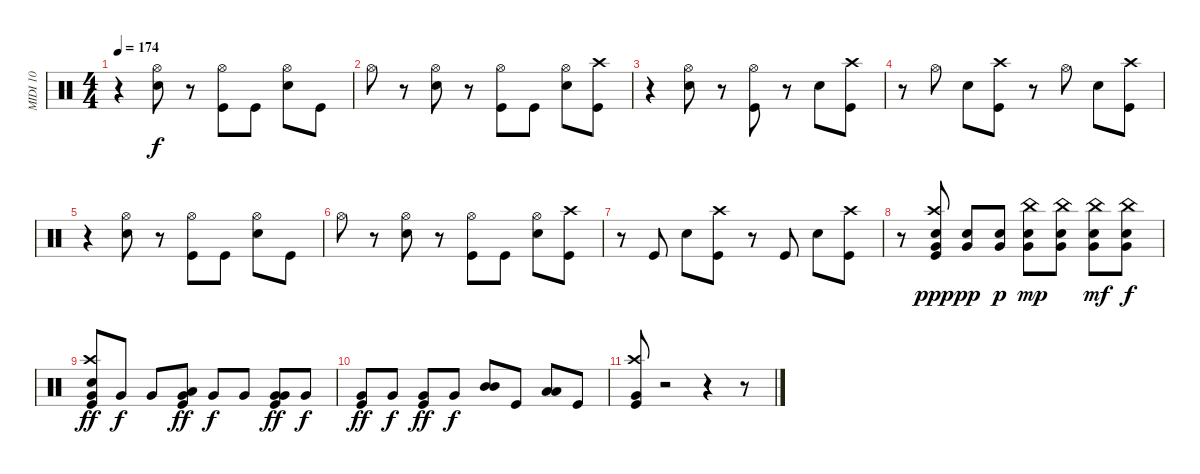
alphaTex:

\track ("MIDI 10" "MIDI 10") {instrument percussion}
\staff {score}
\articulation defaults
\ts (4 4)
\tempo 174
\clef neutral
\ks c
r.4{dy f} ("Hi-Hat (open)" "Snare (hit) 2").8 r.8 ("Hi-Hat (open)" "Kick (hit)").8 "Kick (hit)".8 ("Hi-Hat (open)" "Snare (hit) 2").8 "Kick (hit)".8 |
"Hi-Hat (open)".8 r.8 ("Hi-Hat (open)" "Snare (hit) 2").8 r.8 ("Hi-Hat (open)" "Kick (hit)").8 "Kick (hit)".8 ("Hi-Hat (open)" "Snare (hit) 2").8 ("Kick (hit)" "Crash high (hit)").8 |
r.4 ("Hi-Hat (open)" "Snare (hit) 2").8 r.8 ("Hi-Hat (open)" "Kick (hit)").8 r.8 "Snare (hit) 2".8 ("Crash high (hit)" "Kick (hit)").8 |
r.8 "Hi-Hat (open)".8 "Snare (hit) 2".8 ("Crash high (hit)" "Kick (hit)").8 r.8 "Hi-Hat (open)".8 "Snare (hit) 2".8 ("Kick (hit)" "Crash high (hit)").8 |
r.4 ("Hi-Hat (open)" "Snare (hit) 2").8 r.8 ("Hi-Hat (open)" "Kick (hit)").8 "Kick (hit)".8 ("Hi-Hat (open)" "Snare (hit) 2").8 "Kick (hit)".8 |
"Hi-Hat (open)".8 r.8 ("Hi-Hat (open)" "Snare (hit) 2").8 r.8 ("Hi-Hat (open)" "Kick (hit)").8 "Kick (hit)".8 ("Hi-Hat (open)" "Snare (hit) 2").8 ("Kick (hit)" "Crash high (hit)").8 |
r.8 "Kick (hit)".8 "Snare (hit) 2".8 ("Kick (hit)" "Crash high (hit)").8 r.8 "Kick (hit)".8 "Snare (hit) 2".8 ("Kick (hit)" "Crash high (hit)").8 |
r.8 ("Kick (hit)" "Snare (hit) 2" "Very Low Tom (hit)" "Crash high (hit)").8{dy ppp} ("Snare (hit) 2" "Very Low Tom (hit)").8{dy pp} ("Snare (hit) 2" "Very Low Tom (hit)").8{dy p} ("Snare (hit) 2" "Very Low Tom (hit)" "China (hit)").8{dy mp} ("Snare (hit) 2" "Very Low Tom (hit)" "China (hit)").8 ("Snare (hit) 2" "Very Low Tom (hit)" "China (hit)").8{dy mf} ("Snare (hit) 2" "Very Low Tom (hit)" "China (hit)").8{dy f} |
("Snare (hit) 2" "Crash high (hit)" "Very Low Tom (hit)" "Kick (hit)").8{dy ff} "Very Low Tom (hit)".8{dy f} "Very Low Tom (hit)".8 ("Low Tom (hit)" "Very Low Tom (hit)" "Kick (hit)").8{dy ff} "Very Low Tom (hit)".8{dy f} "Very Low Tom (hit)".8 ("Very Low Tom (hit)" "Very Low Tom (hit)" "Kick (hit)").8{dy ff} "Very Low Tom (hit)".8{dy f} |
("Very Low Tom (hit)" "Kick (hit)").8{dy ff} "Very Low Tom (hit)".8{dy f} ("Very Low Tom (hit)" "Kick (hit)").8{dy ff} "Very Low Tom (hit)".8{dy f} ("Mid Tom (hit)" "Mid Tom (hit)").8 "Kick (hit)".8 ("Low Tom (hit)" "Low Tom (hit)").8 "Kick (hit)".8 |
("Crash high (hit)" "Kick (hit)" "Very Low Tom (hit)").8 r.2 r.4 r.8
